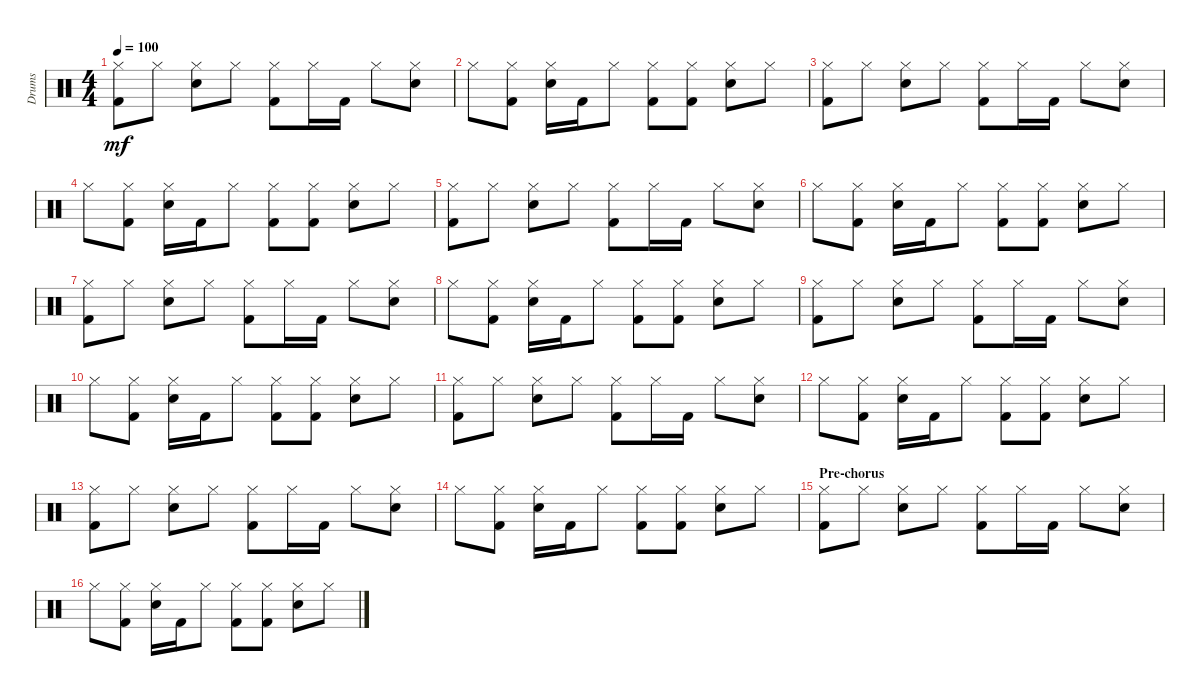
\defaultSystemsLayout 4
\bracketExtendMode groupsimilarinstruments
\otherSystemsTrackNameOrientation horizontal
\track ("Prakarsh" "Drums") {instrument percussion}
\staff {score}
\articulation defaults
\ts (4 4)
\tempo 100
\clef neutral
\ks c
("Hi-Hat (closed)" "Kick (hit) 2").8{dy mf beam Down} "Hi-Hat (closed)".8{beam Down} ("Hi-Hat (closed)" "Snare (hit) 2").8{beam Down} "Hi-Hat (closed)".8{beam Down} ("Hi-Hat (closed)" "Kick (hit) 2").8{beam Down} "Hi-Hat (closed)".16{beam Down} "Kick (hit) 2".16{beam Down} "Hi-Hat (closed)".8{beam Down} ("Hi-Hat (closed)" "Snare (hit) 2").8{beam Down} |
"Hi-Hat (closed)".8{beam Down} ("Hi-Hat (closed)" "Kick (hit) 2").8{beam Down} ("Hi-Hat (closed)" "Snare (hit) 2").16{beam Down} "Kick (hit) 2".16{beam Down} "Hi-Hat (closed)".8{beam Down} ("Hi-Hat (closed)" "Kick (hit) 2").8{beam Down} ("Hi-Hat (closed)" "Kick (hit) 2").8{beam Down} ("Hi-Hat (closed)" "Snare (hit) 2").8{beam Down} "Hi-Hat (closed)".8{beam Down} |
("Hi-Hat (closed)" "Kick (hit) 2").8{beam Down} "Hi-Hat (closed)".8{beam Down} ("Hi-Hat (closed)" "Snare (hit) 2").8{beam Down} "Hi-Hat (closed)".8{beam Down} ("Hi-Hat (closed)" "Kick (hit) 2").8{beam Down} "Hi-Hat (closed)".16{beam Down} "Kick (hit) 2".16{beam Down} "Hi-Hat (closed)".8{beam Down} ("Hi-Hat (closed)" "Snare (hit) 2").8{beam Down} |
"Hi-Hat (closed)".8{beam Down} ("Hi-Hat (closed)" "Kick (hit) 2").8{beam Down} ("Hi-Hat (closed)" "Snare (hit) 2").16{beam Down} "Kick (hit) 2".16{beam Down} "Hi-Hat (closed)".8{beam Down} ("Hi-Hat (closed)" "Kick (hit) 2").8{beam Down} ("Hi-Hat (closed)" "Kick (hit) 2").8{beam Down} ("Hi-Hat (closed)" "Snare (hit) 2").8{beam Down} "Hi-Hat (closed)".8{beam Down} |
("Hi-Hat (closed)" "Kick (hit) 2").8{beam Down} "Hi-Hat (closed)".8{beam Down} ("Hi-Hat (closed)" "Snare (hit) 2").8{beam Down} "Hi-Hat (closed)".8{beam Down} ("Hi-Hat (closed)" "Kick (hit) 2").8{beam Down} "Hi-Hat (closed)".16{beam Down} "Kick (hit) 2".16{beam Down} "Hi-Hat (closed)".8{beam Down} ("Hi-Hat (closed)" "Snare (hit) 2").8{beam Down} |
"Hi-Hat (closed)".8{beam Down} ("Hi-Hat (closed)" "Kick (hit) 2").8{beam Down} ("Hi-Hat (closed)" "Snare (hit) 2").16{beam Down} "Kick (hit) 2".16{beam Down} "Hi-Hat (closed)".8{beam Down} ("Hi-Hat (closed)" "Kick (hit) 2").8{beam Down} ("Hi-Hat (closed)" "Kick (hit) 2").8{beam Down} ("Hi-Hat (closed)" "Snare (hit) 2").8{beam Down} "Hi-Hat (closed)".8{beam Down} |
("Hi-Hat (closed)" "Kick (hit) 2").8{beam Down} "Hi-Hat (closed)".8{beam Down} ("Hi-Hat (closed)" "Snare (hit) 2").8{beam Down} "Hi-Hat (closed)".8{beam Down} ("Hi-Hat (closed)" "Kick (hit) 2").8{beam Down} "Hi-Hat (closed)".16{beam Down} "Kick (hit) 2".16{beam Down} "Hi-Hat (closed)".8{beam Down} ("Hi-Hat (closed)" "Snare (hit) 2").8{beam Down} |
"Hi-Hat (closed)".8{beam Down} ("Hi-Hat (closed)" "Kick (hit) 2").8{beam Down} ("Hi-Hat (closed)" "Snare (hit) 2").16{beam Down} "Kick (hit) 2".16{beam Down} "Hi-Hat (closed)".8{beam Down} ("Hi-Hat (closed)" "Kick (hit) 2").8{beam Down} ("Hi-Hat (closed)" "Kick (hit) 2").8{beam Down} ("Hi-Hat (closed)" "Snare (hit) 2").8{beam Down} "Hi-Hat (closed)".8{beam Down} |
("Hi-Hat (closed)" "Kick (hit) 2").8{beam Down} "Hi-Hat (closed)".8{beam Down} ("Hi-Hat (closed)" "Snare (hit) 2").8{beam Down} "Hi-Hat (closed)".8{beam Down} ("Hi-Hat (closed)" "Kick (hit) 2").8{beam Down} "Hi-Hat (closed)".16{beam Down} "Kick (hit) 2".16{beam Down} "Hi-Hat (closed)".8{beam Down} ("Hi-Hat (closed)" "Snare (hit) 2").8{beam Down} |
"Hi-Hat (closed)".8{beam Down} ("Hi-Hat (closed)" "Kick (hit) 2").8{beam Down} ("Hi-Hat (closed)" "Snare (hit) 2").16{beam Down} "Kick (hit) 2".16{beam Down} "Hi-Hat (closed)".8{beam Down} ("Hi-Hat (closed)" "Kick (hit) 2").8{beam Down} ("Hi-Hat (closed)" "Kick (hit) 2").8{beam Down} ("Hi-Hat (closed)" "Snare (hit) 2").8{beam Down} "Hi-Hat (closed)".8{beam Down} |
("Hi-Hat (closed)" "Kick (hit) 2").8{beam Down} "Hi-Hat (closed)".8{beam Down} ("Hi-Hat (closed)" "Snare (hit) 2").8{beam Down} "Hi-Hat (closed)".8{beam Down} ("Hi-Hat (closed)" "Kick (hit) 2").8{beam Down} "Hi-Hat (closed)".16{beam Down} "Kick (hit) 2".16{beam Down} "Hi-Hat (closed)".8{beam Down} ("Hi-Hat (closed)" "Snare (hit) 2").8{beam Down} |
"Hi-Hat (closed)".8{beam Down} ("Hi-Hat (closed)" "Kick (hit) 2").8{beam Down} ("Hi-Hat (closed)" "Snare (hit) 2").16{beam Down} "Kick (hit) 2".16{beam Down} "Hi-Hat (closed)".8{beam Down} ("Hi-Hat (closed)" "Kick (hit) 2").8{beam Down} ("Hi-Hat (closed)" "Kick (hit) 2").8{beam Down} ("Hi-Hat (closed)" "Snare (hit) 2").8{beam Down} "Hi-Hat (closed)".8{beam Down} |
("Hi-Hat (closed)" "Kick (hit) 2").8{beam Down} "Hi-Hat (closed)".8{beam Down} ("Hi-Hat (closed)" "Snare (hit) 2").8{beam Down} "Hi-Hat (closed)".8{beam Down} ("Hi-Hat (closed)" "Kick (hit) 2").8{beam Down} "Hi-Hat (closed)".16{beam Down} "Kick (hit) 2".16{beam Down} "Hi-Hat (closed)".8{beam Down} ("Hi-Hat (closed)" "Snare (hit) 2").8{beam Down} |
"Hi-Hat (closed)".8{beam Down} ("Hi-Hat (closed)" "Kick (hit) 2").8{beam Down} ("Hi-Hat (closed)" "Snare (hit) 2").16{beam Down} "Kick (hit) 2".16{beam Down} "Hi-Hat (closed)".8{beam Down} ("Hi-Hat (closed)" "Kick (hit) 2").8{beam Down} ("Hi-Hat (closed)" "Kick (hit) 2").8{beam Down} ("Hi-Hat (closed)" "Snare (hit) 2").8{beam Down} "Hi-Hat (closed)".8{beam Down} |
\section ("" "Pre-chorus")
("Hi-Hat (closed)" "Kick (hit) 2").8{beam Down} "Hi-Hat (closed)".8{beam Down} ("Hi-Hat (closed)" "Snare (hit) 2").8{beam Down} "Hi-Hat (closed)".8{beam Down} ("Hi-Hat (closed)" "Kick (hit) 2").8{beam Down} "Hi-Hat (closed)".16{beam Down} "Kick (hit) 2".16{beam Down} "Hi-Hat (closed)".8{beam Down} ("Hi-Hat (closed)" "Snare (hit) 2").8{beam Down} |
"Hi-Hat (closed)".8{beam Down} ("Hi-Hat (closed)" "Kick (hit) 2").8{beam Down} ("Hi-Hat (closed)" "Snare (hit) 2").16{beam Down} "Kick (hit) 2".16{beam Down} "Hi-Hat (closed)".8{beam Down} ("Hi-Hat (closed)" "Kick (hit) 2").8{beam Down} ("Hi-Hat (closed)" "Kick (hit) 2").8{beam Down} ("Hi-Hat (closed)" "Snare (hit) 2").8{beam Down} "Hi-Hat (closed)".8{beam Down}
